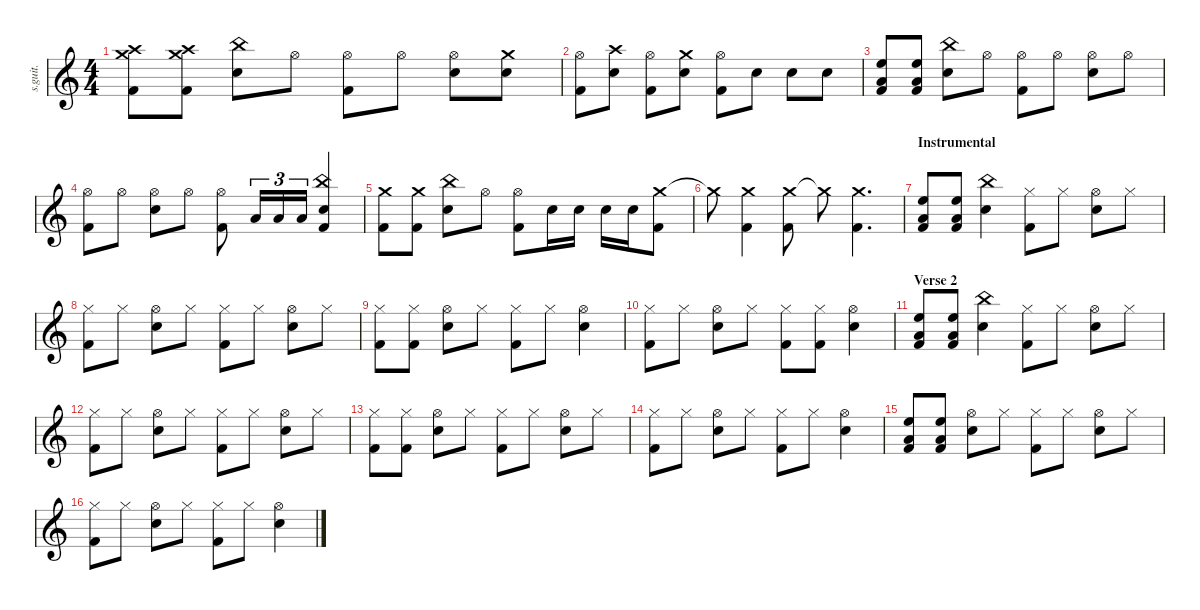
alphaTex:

\defaultSystemsLayout 4
\hideDynamics
\bracketExtendMode nobrackets
\track ("Mountain" "s.guit.") {instrument percussion}
\staff {score}
\articulation defaults
\ts (4 4)
\tempo (88 hide)
\clef g2
\ks c
("Crash medium (hit)" "Crash high (hit)" "Kick (hit) 2").8{dy f} ("Crash medium (hit)" "Crash high (hit)" "Kick (hit) 2").8 ("China (hit)" "Snare (hit) 2").8 "Hi-Hat (open)".8 ("Hi-Hat (open)" "Kick (hit) 2").8 "Hi-Hat (open)".8 ("Hi-Hat (open)" "Snare (hit) 2").8 ("Crash medium (hit)" "Snare (hit) 2").8 |
("Hi-Hat (open)" "Kick (hit) 2").8 ("Crash high (hit)" "Snare (hit) 2").8 ("Hi-Hat (open)" "Kick (hit) 2").8 ("Crash medium (hit)" "Snare (hit) 2").8 ("Hi-Hat (open)" "Kick (hit) 2").8 "Snare (hit) 2".8 "Snare (hit) 2".8 "Snare (hit) 2".8 |
("High Floor Tom (hit)" "Low Tom (hit)" "Kick (hit) 2").8 ("High Floor Tom (hit)" "Low Tom (hit)" "Kick (hit) 2").8 ("China (hit)" "Snare (hit) 2").8 "Hi-Hat (open)".8 ("Hi-Hat (open)" "Kick (hit) 2").8 "Hi-Hat (open)".8 ("Hi-Hat (open)" "Snare (hit) 2").8 "Hi-Hat (open)".8 |
("Hi-Hat (open)" "Kick (hit) 2").8 "Hi-Hat (open)".8 ("Hi-Hat (open)" "Snare (hit) 2").8 "Hi-Hat (open)".8 ("Hi-Hat (open)" "Kick (hit) 2").8 "Low Tom (hit)".16{tu (3 2)} "Low Tom (hit)".16{tu (3 2)} "Low Tom (hit)".16{tu (3 2)} ("China (hit)" "Snare (hit) 2" "Kick (hit) 2").4 |
("Crash medium (hit)" "Kick (hit) 2").8 ("Crash medium (hit)" "Kick (hit) 2").8 ("China (hit)" "Snare (hit) 2").8 "Hi-Hat (open)".8 ("Hi-Hat (open)" "Kick (hit) 2").8 "Snare (hit) 2".16 "Snare (hit) 2".16 "Snare (hit) 2".16 "Snare (hit) 2".16 ("Crash medium (hit)" "Kick (hit) 2").8 |
"Crash medium (hit)"{t}.8 ("Crash medium (hit)" "Kick (hit) 2").4 ("Crash medium (hit)" "Kick (hit) 2").8 "Crash medium (hit)"{t}.8 ("Crash medium (hit)" "Kick (hit) 2").4{d} |
\section ("" "Instrumental")
("High Floor Tom (hit)" "Low Tom (hit)" "Kick (hit) 2").8 ("High Floor Tom (hit)" "Low Tom (hit)" "Kick (hit) 2").8 ("China (hit)" "Snare (hit) 2").4 ("Hi-Hat (closed)" "Kick (hit) 2").8 "Hi-Hat (closed)".8 ("Hi-Hat (open)" "Snare (hit) 2").8 "Hi-Hat (closed)".8 |
("Hi-Hat (closed)" "Kick (hit) 2").8 "Hi-Hat (closed)".8 ("Hi-Hat (open)" "Snare (hit) 2").8 "Hi-Hat (closed)".8 ("Hi-Hat (closed)" "Kick (hit) 2").8 "Hi-Hat (closed)".8 ("Hi-Hat (open)" "Snare (hit) 2").8 "Hi-Hat (closed)".8 |
("Hi-Hat (closed)" "Kick (hit) 2").8 ("Hi-Hat (closed)" "Kick (hit) 2").8 ("Hi-Hat (open)" "Snare (hit) 2").8 "Hi-Hat (closed)".8 ("Hi-Hat (closed)" "Kick (hit) 2").8 "Hi-Hat (closed)".8 ("Hi-Hat (open)" "Snare (hit) 2").4 |
("Hi-Hat (closed)" "Kick (hit) 2").8 "Hi-Hat (closed)".8 ("Hi-Hat (open)" "Snare (hit) 2").8 "Hi-Hat (closed)".8 ("Hi-Hat (closed)" "Kick (hit) 2").8 ("Hi-Hat (closed)" "Kick (hit) 2").8 ("Hi-Hat (open)" "Snare (hit) 2").4 |
\section ("" "Verse 2")
("High Floor Tom (hit)" "Low Tom (hit)" "Kick (hit) 2").8 ("High Floor Tom (hit)" "Low Tom (hit)" "Kick (hit) 2").8 ("China (hit)" "Snare (hit) 2").4 ("Hi-Hat (closed)" "Kick (hit) 2").8 "Hi-Hat (closed)".8 ("Hi-Hat (open)" "Snare (hit) 2").8 "Hi-Hat (closed)".8 |
("Hi-Hat (closed)" "Kick (hit) 2").8 "Hi-Hat (closed)".8 ("Hi-Hat (open)" "Snare (hit) 2").8 "Hi-Hat (closed)".8 ("Hi-Hat (closed)" "Kick (hit) 2").8 "Hi-Hat (closed)".8 ("Hi-Hat (open)" "Snare (hit) 2").8 "Hi-Hat (closed)".8 |
("Hi-Hat (closed)" "Kick (hit) 2").8 ("Hi-Hat (closed)" "Kick (hit) 2").8 ("Hi-Hat (open)" "Snare (hit) 2").8 "Hi-Hat (closed)".8 ("Hi-Hat (closed)" "Kick (hit) 2").8 "Hi-Hat (closed)".8 ("Hi-Hat (open)" "Snare (hit) 2").8 "Hi-Hat (closed)".8 |
("Hi-Hat (closed)" "Kick (hit) 2").8 "Hi-Hat (closed)".8 ("Hi-Hat (open)" "Snare (hit) 2").8 "Hi-Hat (closed)".8 ("Hi-Hat (closed)" "Kick (hit) 2").8 "Hi-Hat (closed)".8 ("Hi-Hat (open)" "Snare (hit) 2").4 |
("High Floor Tom (hit)" "Low Tom (hit)" "Kick (hit) 2").8 ("High Floor Tom (hit)" "Low Tom (hit)" "Kick (hit) 2").8 ("Hi-Hat (open)" "Snare (hit) 2").8 "Hi-Hat (closed)".8 ("Hi-Hat (closed)" "Kick (hit) 2").8 "Hi-Hat (closed)".8 ("Hi-Hat (open)" "Snare (hit) 2").8 "Hi-Hat (closed)".8 |
("Hi-Hat (closed)" "Kick (hit) 2").8 "Hi-Hat (closed)".8 ("Hi-Hat (open)" "Snare (hit) 2").8 "Hi-Hat (closed)".8 ("Hi-Hat (closed)" "Kick (hit) 2").8 "Hi-Hat (closed)".8 ("Hi-Hat (open)" "Snare (hit) 2").4
